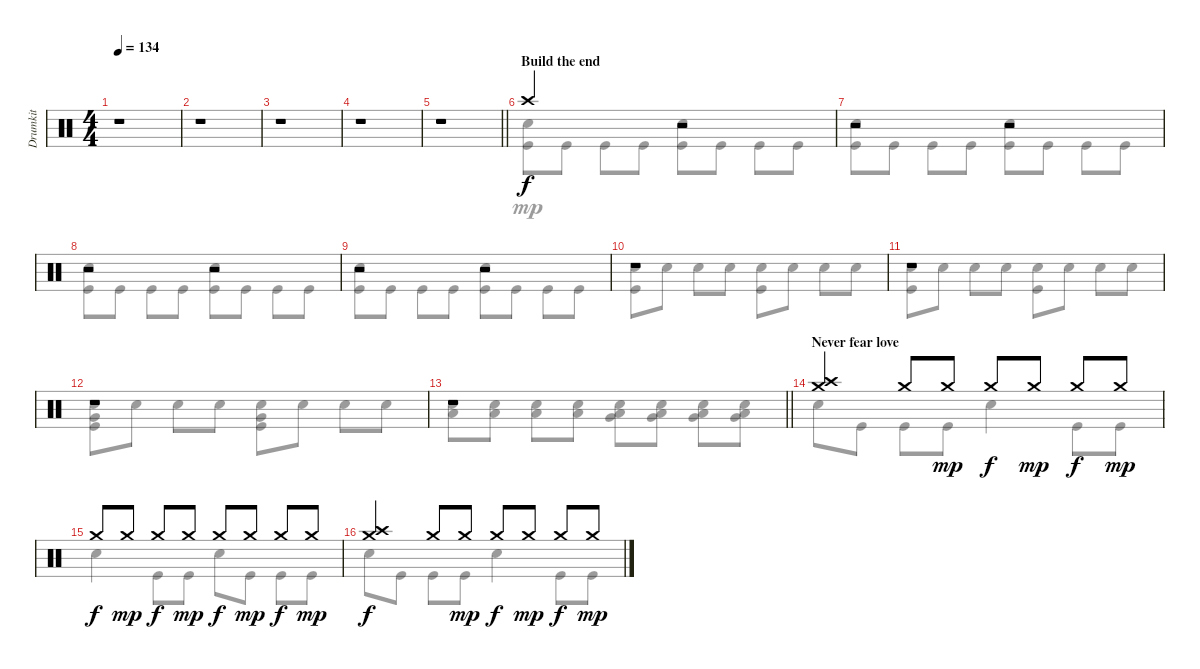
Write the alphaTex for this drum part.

\track ("Drumkit" "Drumkit") {instrument percussion}
\staff {score}
\articulation defaults
\voice
\ts (4 4)
\tempo 134
\clef neutral
\ks c
r.1{dy f} |
r.1 |
r.1 |
r.1 |
\barLineRight lightlight
r.1 |
\section ("" "Build the end")
"Crash high (hit)".2 r.2 |
r.2 r.2 |
r.2 r.2 |
r.2 r.2 |
r.1 |
r.1 |
r.1 |
\barLineRight lightlight
r.1 |
\section ("" "Never fear love")
("Crash medium (hit)" "Crash high (hit)").4 "Crash medium (hit)".8 "Crash medium (hit)".8{dy mp} "Crash medium (hit)".8{dy f} "Crash medium (hit)".8{dy mp} "Crash medium (hit)".8{dy f} "Crash medium (hit)".8{dy mp} |
"Crash medium (hit)".8{dy f} "Crash medium (hit)".8{dy mp} "Crash medium (hit)".8{dy f} "Crash medium (hit)".8{dy mp} "Crash medium (hit)".8{dy f} "Crash medium (hit)".8{dy mp} "Crash medium (hit)".8{dy f} "Crash medium (hit)".8{dy mp} |
("Crash medium (hit)" "Crash high (hit)").4{dy f} "Crash medium (hit)".8 "Crash medium (hit)".8{dy mp} "Crash medium (hit)".8{dy f} "Crash medium (hit)".8{dy mp} "Crash medium (hit)".8{dy f} "Crash medium (hit)".8{dy mp}
\voice
\clef neutral
\ottava regular
\simile none
\ks c
|
|
|
|
\barLineRight lightlight
|
("Snare (hit) 2" "Kick (hit)").8 "Kick (hit)".8 "Kick (hit)".8 "Kick (hit)".8 ("Snare (hit) 2" "Kick (hit)").8 "Kick (hit)".8 "Kick (hit)".8 "Kick (hit)".8 |
("Snare (hit) 2" "Kick (hit)").8 "Kick (hit)".8 "Kick (hit)".8 "Kick (hit)".8 ("Snare (hit) 2" "Kick (hit)").8 "Kick (hit)".8 "Kick (hit)".8 "Kick (hit)".8 |
("Snare (hit) 2" "Kick (hit)").8 "Kick (hit)".8 "Kick (hit)".8 "Kick (hit)".8 ("Snare (hit) 2" "Kick (hit)").8 "Kick (hit)".8 "Kick (hit)".8 "Kick (hit)".8 |
("Snare (hit) 2" "Kick (hit)").8 "Kick (hit)".8 "Kick (hit)".8 "Kick (hit)".8 ("Snare (hit) 2" "Kick (hit)").8 "Kick (hit)".8 "Kick (hit)".8 "Kick (hit)".8 |
("Snare (hit) 2" "Kick (hit)").8 "Snare (hit) 2".8 "Snare (hit) 2".8 "Snare (hit) 2".8 ("Snare (hit) 2" "Kick (hit)").8 "Snare (hit) 2".8 "Snare (hit) 2".8 "Snare (hit) 2".8 |
("Snare (hit) 2" "Kick (hit)").8 "Snare (hit) 2".8 "Snare (hit) 2".8 "Snare (hit) 2".8 ("Snare (hit) 2" "Kick (hit)").8 "Snare (hit) 2".8 "Snare (hit) 2".8 "Snare (hit) 2".8 |
("Very Low Tom (hit)" "Snare (hit) 2" "Kick (hit)").8 "Snare (hit) 2".8 "Snare (hit) 2".8 "Snare (hit) 2".8 ("Very Low Tom (hit)" "Snare (hit) 2" "Kick (hit)").8 "Snare (hit) 2".8 "Snare (hit) 2".8 "Snare (hit) 2".8 |
\barLineRight lightlight
("Low Floor Tom (hit)" "Snare (hit) 2").8 ("Low Floor Tom (hit)" "Snare (hit) 2").8 ("Low Floor Tom (hit)" "Snare (hit) 2").8 ("Low Floor Tom (hit)" "Snare (hit) 2").8 ("Very Low Tom (hit)" "Snare (hit) 2" "Low Floor Tom (hit)").8 ("Very Low Tom (hit)" "Snare (hit) 2" "Low Floor Tom (hit)").8 ("Very Low Tom (hit)" "Snare (hit) 2" "Low Floor Tom (hit)").8 ("Very Low Tom (hit)" "Snare (hit) 2" "Low Floor Tom (hit)").8 |
"Snare (hit) 2".8 "Kick (hit)".8 "Kick (hit)".8 "Kick (hit)".8 "Snare (hit) 2".4 "Kick (hit)".8 "Kick (hit)".8 |
"Snare (hit) 2".4 "Kick (hit)".8 "Kick (hit)".8 "Snare (hit) 2".8 "Kick (hit)".8 "Kick (hit)".8 "Kick (hit)".8 |
"Snare (hit) 2".8 "Kick (hit)".8 "Kick (hit)".8 "Kick (hit)".8 "Snare (hit) 2".4 "Kick (hit)".8 "Kick (hit)".8
